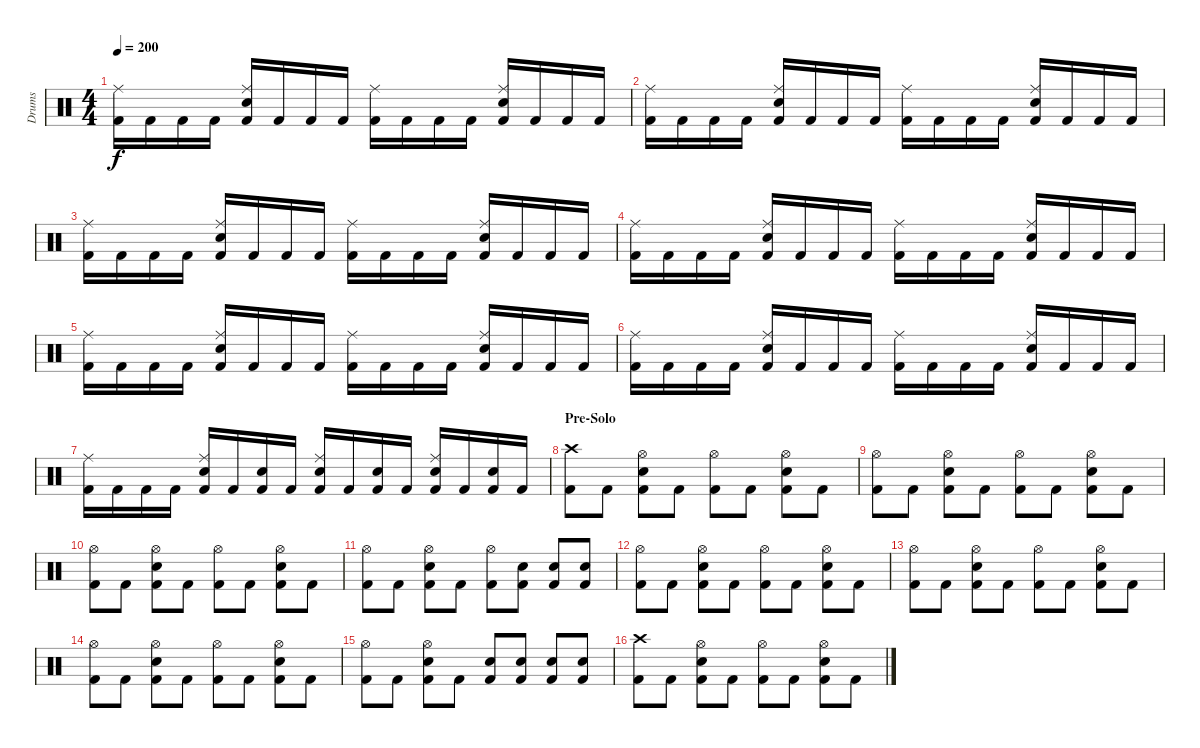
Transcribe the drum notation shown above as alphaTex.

\track ("Drums" "Drums") {instrument percussion}
\staff {score}
\articulation defaults
\ts (4 4)
\tempo 200
\clef neutral
\ks c
("Kick (hit) 2" "Ride (middle)").16{dy f} "Kick (hit) 2".16 "Kick (hit) 2".16 "Kick (hit) 2".16 ("Kick (hit) 2" "Snare (hit) 2" "Ride (middle)").16 "Kick (hit) 2".16 "Kick (hit) 2".16 "Kick (hit) 2".16 ("Kick (hit) 2" "Ride (middle)").16 "Kick (hit) 2".16 "Kick (hit) 2".16 "Kick (hit) 2".16 ("Kick (hit) 2" "Snare (hit) 2" "Ride (middle)").16 "Kick (hit) 2".16 "Kick (hit) 2".16 "Kick (hit) 2".16 |
("Kick (hit) 2" "Ride (middle)").16 "Kick (hit) 2".16 "Kick (hit) 2".16 "Kick (hit) 2".16 ("Kick (hit) 2" "Snare (hit) 2" "Ride (middle)").16 "Kick (hit) 2".16 "Kick (hit) 2".16 "Kick (hit) 2".16 ("Kick (hit) 2" "Ride (middle)").16 "Kick (hit) 2".16 "Kick (hit) 2".16 "Kick (hit) 2".16 ("Kick (hit) 2" "Snare (hit) 2" "Ride (middle)").16 "Kick (hit) 2".16 "Kick (hit) 2".16 "Kick (hit) 2".16 |
("Kick (hit) 2" "Ride (middle)").16 "Kick (hit) 2".16 "Kick (hit) 2".16 "Kick (hit) 2".16 ("Kick (hit) 2" "Snare (hit) 2" "Ride (middle)").16 "Kick (hit) 2".16 "Kick (hit) 2".16 "Kick (hit) 2".16 ("Kick (hit) 2" "Ride (middle)").16 "Kick (hit) 2".16 "Kick (hit) 2".16 "Kick (hit) 2".16 ("Kick (hit) 2" "Snare (hit) 2" "Ride (middle)").16 "Kick (hit) 2".16 "Kick (hit) 2".16 "Kick (hit) 2".16 |
("Kick (hit) 2" "Ride (middle)").16 "Kick (hit) 2".16 "Kick (hit) 2".16 "Kick (hit) 2".16 ("Kick (hit) 2" "Snare (hit) 2" "Ride (middle)").16 "Kick (hit) 2".16 "Kick (hit) 2".16 "Kick (hit) 2".16 ("Kick (hit) 2" "Ride (middle)").16 "Kick (hit) 2".16 "Kick (hit) 2".16 "Kick (hit) 2".16 ("Kick (hit) 2" "Snare (hit) 2" "Ride (middle)").16 "Kick (hit) 2".16 "Kick (hit) 2".16 "Kick (hit) 2".16 |
("Kick (hit) 2" "Ride (middle)").16 "Kick (hit) 2".16 "Kick (hit) 2".16 "Kick (hit) 2".16 ("Kick (hit) 2" "Snare (hit) 2" "Ride (middle)").16 "Kick (hit) 2".16 "Kick (hit) 2".16 "Kick (hit) 2".16 ("Kick (hit) 2" "Ride (middle)").16 "Kick (hit) 2".16 "Kick (hit) 2".16 "Kick (hit) 2".16 ("Kick (hit) 2" "Snare (hit) 2" "Ride (middle)").16 "Kick (hit) 2".16 "Kick (hit) 2".16 "Kick (hit) 2".16 |
("Kick (hit) 2" "Ride (middle)").16 "Kick (hit) 2".16 "Kick (hit) 2".16 "Kick (hit) 2".16 ("Kick (hit) 2" "Snare (hit) 2" "Ride (middle)").16 "Kick (hit) 2".16 "Kick (hit) 2".16 "Kick (hit) 2".16 ("Kick (hit) 2" "Ride (middle)").16 "Kick (hit) 2".16 "Kick (hit) 2".16 "Kick (hit) 2".16 ("Kick (hit) 2" "Snare (hit) 2" "Ride (middle)").16 "Kick (hit) 2".16 "Kick (hit) 2".16 "Kick (hit) 2".16 |
("Kick (hit) 2" "Ride (middle)").16 "Kick (hit) 2".16 "Kick (hit) 2".16 "Kick (hit) 2".16 ("Kick (hit) 2" "Snare (hit) 2" "Ride (middle)").16 "Kick (hit) 2".16 ("Kick (hit) 2" "Snare (hit) 2").16 "Kick (hit) 2".16 ("Kick (hit) 2" "Snare (hit) 2" "Ride (middle)").16 "Kick (hit) 2".16 ("Kick (hit) 2" "Snare (hit) 2").16 "Kick (hit) 2".16 ("Kick (hit) 2" "Snare (hit) 2" "Ride (middle)").16 "Kick (hit) 2".16 ("Kick (hit) 2" "Snare (hit) 2").16 "Kick (hit) 2".16 |
\section ("" "Pre-Solo")
("Kick (hit) 2" "Crash high (hit)").8 "Kick (hit) 2".8 ("Kick (hit) 2" "Snare (hit) 2" "Hi-Hat (open)").8 "Kick (hit) 2".8 ("Kick (hit) 2" "Hi-Hat (open)").8 "Kick (hit) 2".8 ("Kick (hit) 2" "Snare (hit) 2" "Hi-Hat (open)").8 "Kick (hit) 2".8 |
("Kick (hit) 2" "Hi-Hat (open)").8 "Kick (hit) 2".8 ("Kick (hit) 2" "Snare (hit) 2" "Hi-Hat (open)").8 "Kick (hit) 2".8 ("Kick (hit) 2" "Hi-Hat (open)").8 "Kick (hit) 2".8 ("Kick (hit) 2" "Snare (hit) 2" "Hi-Hat (open)").8 "Kick (hit) 2".8 |
("Kick (hit) 2" "Hi-Hat (open)").8 "Kick (hit) 2".8 ("Kick (hit) 2" "Snare (hit) 2" "Hi-Hat (open)").8 "Kick (hit) 2".8 ("Kick (hit) 2" "Hi-Hat (open)").8 "Kick (hit) 2".8 ("Kick (hit) 2" "Snare (hit) 2" "Hi-Hat (open)").8 "Kick (hit) 2".8 |
("Kick (hit) 2" "Hi-Hat (open)").8 "Kick (hit) 2".8 ("Kick (hit) 2" "Snare (hit) 2" "Hi-Hat (open)").8 "Kick (hit) 2".8 ("Kick (hit) 2" "Hi-Hat (open)").8 ("Kick (hit) 2" "Snare (hit) 2").8 ("Kick (hit) 2" "Snare (hit) 2").8 ("Kick (hit) 2" "Snare (hit) 2").8 |
("Kick (hit) 2" "Hi-Hat (open)").8 "Kick (hit) 2".8 ("Kick (hit) 2" "Snare (hit) 2" "Hi-Hat (open)").8 "Kick (hit) 2".8 ("Kick (hit) 2" "Hi-Hat (open)").8 "Kick (hit) 2".8 ("Kick (hit) 2" "Snare (hit) 2" "Hi-Hat (open)").8 "Kick (hit) 2".8 |
("Kick (hit) 2" "Hi-Hat (open)").8 "Kick (hit) 2".8 ("Kick (hit) 2" "Snare (hit) 2" "Hi-Hat (open)").8 "Kick (hit) 2".8 ("Kick (hit) 2" "Hi-Hat (open)").8 "Kick (hit) 2".8 ("Kick (hit) 2" "Snare (hit) 2" "Hi-Hat (open)").8 "Kick (hit) 2".8 |
("Kick (hit) 2" "Hi-Hat (open)").8 "Kick (hit) 2".8 ("Kick (hit) 2" "Snare (hit) 2" "Hi-Hat (open)").8 "Kick (hit) 2".8 ("Kick (hit) 2" "Hi-Hat (open)").8 "Kick (hit) 2".8 ("Kick (hit) 2" "Snare (hit) 2" "Hi-Hat (open)").8 "Kick (hit) 2".8 |
("Kick (hit) 2" "Hi-Hat (open)").8 "Kick (hit) 2".8 ("Kick (hit) 2" "Snare (hit) 2" "Hi-Hat (open)").8 "Kick (hit) 2".8 ("Kick (hit) 2" "Snare (hit) 2").8 ("Kick (hit) 2" "Snare (hit) 2").8 ("Kick (hit) 2" "Snare (hit) 2").8 ("Kick (hit) 2" "Snare (hit) 2").8 |
("Kick (hit) 2" "Crash high (hit)").8 "Kick (hit) 2".8 ("Kick (hit) 2" "Snare (hit) 2" "Hi-Hat (open)").8 "Kick (hit) 2".8 ("Kick (hit) 2" "Hi-Hat (open)").8 "Kick (hit) 2".8 ("Kick (hit) 2" "Snare (hit) 2" "Hi-Hat (open)").8 "Kick (hit) 2".8
